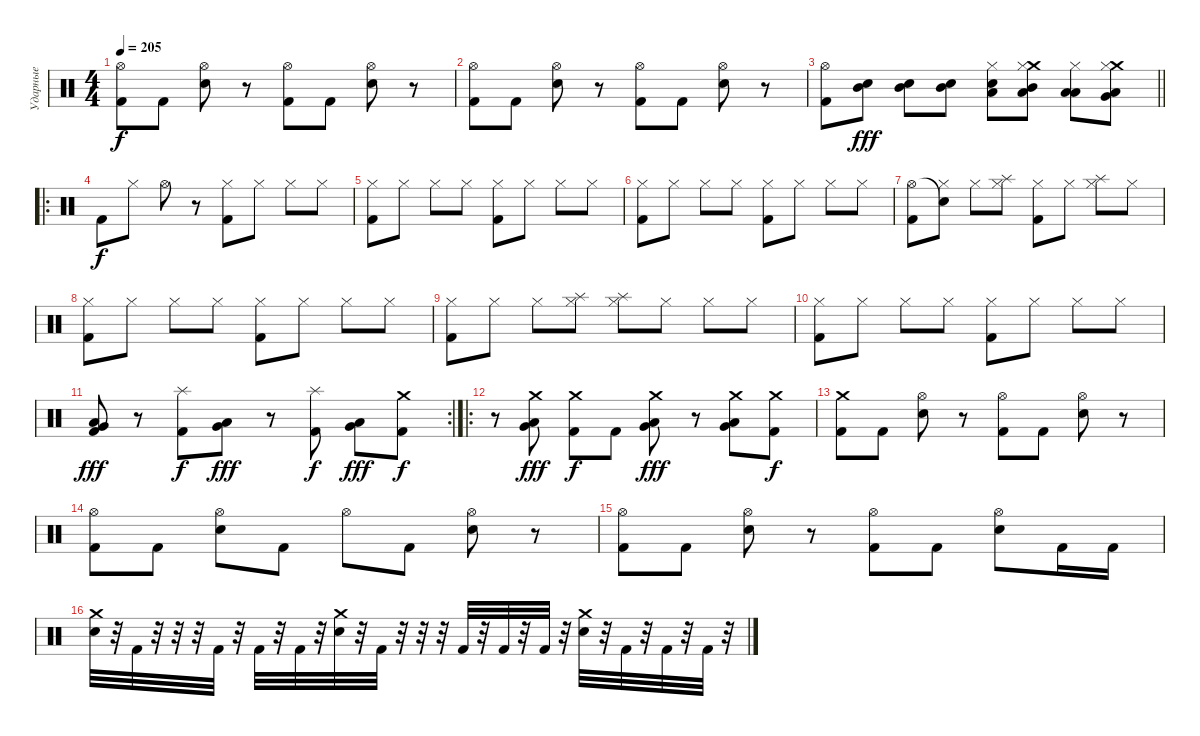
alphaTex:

\track ("Ударные" "Ударные") {instrument percussion}
\staff {score}
\articulation defaults
\ts (4 4)
\tempo 205
\clef neutral
\ks c
("Hi-Hat (open)" "Kick (hit) 2").8{dy f} "Kick (hit) 2".8 ("Hi-Hat (open)" "Electric Snare (hit)").8 r.8 ("Hi-Hat (open)" "Kick (hit) 2").8 "Kick (hit) 2".8 ("Hi-Hat (open)" "Electric Snare (hit)").8 r.8 |
("Hi-Hat (open)" "Kick (hit) 2").8 "Kick (hit) 2".8 ("Hi-Hat (open)" "Electric Snare (hit)").8 r.8 ("Hi-Hat (open)" "Kick (hit) 2").8 "Kick (hit) 2".8 ("Hi-Hat (open)" "Electric Snare (hit)").8 r.8 |
\barLineRight lightlight
("Hi-Hat (open)" "Kick (hit) 2").8 ("Mid Tom (hit)" "Electric Snare (hit)").8{dy fff} ("Mid Tom (hit)" "Electric Snare (hit)").8 ("Mid Tom (hit)" "Electric Snare (hit)").8 ("Low Tom (hit)" "Electric Snare (hit)" "Hi-Hat (closed)").8 ("Crash medium (hit)" "Low Tom (hit)" "Mid Tom (hit)" "Hi-Hat (closed)").8 ("Low Floor Tom (hit)" "Low Tom (hit)" "Hi-Hat (closed)").8 ("Crash medium (hit)" "Low Floor Tom (hit)" "Very Low Tom (hit)" "Hi-Hat (closed)").8 |
\ro "Kick (hit) 2".8{dy f} "Hi-Hat (closed)".8 "Hi-Hat (open)".8
r.8 ("Hi-Hat (closed)" "Kick (hit) 2").8 "Hi-Hat (closed)".8 "Hi-Hat (closed)".8 "Hi-Hat (closed)".8 |
("Hi-Hat (closed)" "Kick (hit) 2").8 "Hi-Hat (closed)".8 "Hi-Hat (closed)".8 "Hi-Hat (closed)".8 ("Hi-Hat (closed)" "Kick (hit) 2").8 "Hi-Hat (closed)".8 "Hi-Hat (closed)".8 "Hi-Hat (closed)".8 |
("Hi-Hat (closed)" "Kick (hit) 2").8 "Hi-Hat (closed)".8 "Hi-Hat (closed)".8 "Hi-Hat (closed)".8 ("Hi-Hat (closed)" "Kick (hit) 2").8 "Hi-Hat (closed)".8 "Hi-Hat (closed)".8 "Hi-Hat (closed)".8 |
("Hi-Hat (open)" "Kick (hit) 2").8 ("Snare (hit)"{t} "Hi-Hat (closed)").8 "Hi-Hat (closed)".8 ("Splash (hit)" "Hi-Hat (closed)").8 ("Hi-Hat (closed)" "Kick (hit) 2").8 "Hi-Hat (closed)".8 ("Splash (hit)" "Hi-Hat (closed)").8 "Hi-Hat (closed)".8 |
("Hi-Hat (closed)" "Kick (hit) 2").8 "Hi-Hat (closed)".8 "Hi-Hat (closed)".8 "Hi-Hat (closed)".8 ("Hi-Hat (closed)" "Kick (hit) 2").8 "Hi-Hat (closed)".8 "Hi-Hat (closed)".8 "Hi-Hat (closed)".8 |
("Hi-Hat (closed)" "Kick (hit) 2").8 "Hi-Hat (closed)".8 "Hi-Hat (closed)".8 ("Hi-Hat (closed)" "Splash (hit)").8 ("Hi-Hat (closed)" "Splash (hit)").8 "Hi-Hat (closed)".8 "Hi-Hat (closed)".8 "Hi-Hat (closed)".8 |
("Hi-Hat (closed)" "Kick (hit) 2").8 "Hi-Hat (closed)".8 "Hi-Hat (closed)".8 "Hi-Hat (closed)".8 ("Hi-Hat (closed)" "Kick (hit) 2").8 "Hi-Hat (closed)".8 "Hi-Hat (closed)".8 "Hi-Hat (closed)".8 |
\rc 2
("Low Floor Tom (hit)" "Very Low Tom (hit)" "Kick (hit) 2").8{dy fff} r.8 ("Splash (hit)" "Kick (hit) 2").8{dy f} ("Low Floor Tom (hit)" "Very Low Tom (hit)").8{dy fff} r.8 ("Splash (hit)" "Kick (hit) 2").8{dy f} ("Low Floor Tom (hit)" "Very Low Tom (hit)").8{dy fff} ("Crash medium (hit)" "Kick (hit) 2").8{dy f} |
\ro
r.8 ("Low Floor Tom (hit)" "Very Low Tom (hit)" "Crash medium (hit)").8{dy fff} ("Crash medium (hit)" "Kick (hit) 2").8{dy f} "Kick (hit) 2".8 ("Crash medium (hit)" "Low Floor Tom (hit)" "Very Low Tom (hit)").8{dy fff} r.8 ("Crash medium (hit)" "Low Floor Tom (hit)" "Very Low Tom (hit)").8 ("Crash medium (hit)" "Kick (hit) 2").8{dy f} |
("Crash medium (hit)" "Kick (hit) 2").8 "Kick (hit) 2".8 ("Hi-Hat (open)" "Electric Snare (hit)").8 r.8 ("Hi-Hat (open)" "Kick (hit) 2").8 "Kick (hit) 2".8 ("Hi-Hat (open)" "Electric Snare (hit)").8 r.8 |
("Hi-Hat (open)" "Kick (hit) 2").8 "Kick (hit) 2".8 ("Hi-Hat (open)" "Electric Snare (hit)").8 "Kick (hit) 2".8 "Hi-Hat (open)".8 "Kick (hit) 2".8 ("Hi-Hat (open)" "Electric Snare (hit)").8 r.8 |
("Hi-Hat (open)" "Kick (hit) 2").8 "Kick (hit) 2".8 ("Hi-Hat (open)" "Electric Snare (hit)").8 r.8 ("Hi-Hat (open)" "Kick (hit) 2").8 "Kick (hit) 2".8 ("Hi-Hat (open)" "Electric Snare (hit)").8 "Kick (hit) 2".16 "Kick (hit) 2".16 |
("Crash medium (hit)" "Electric Snare (hit)").32 r.32 "Kick (hit) 2".32 r.32 r.32 r.32 "Kick (hit) 2".32 r.32 "Kick (hit) 2".32 r.32 "Kick (hit) 2".32 r.32 ("Crash medium (hit)" "Electric Snare (hit)").32 r.32 "Kick (hit) 2".32 r.32 r.32 r.32 "Kick (hit) 2".32 r.32 "Kick (hit) 2".32 r.32 "Kick (hit) 2".32 r.32 ("Crash medium (hit)" "Electric Snare (hit)").32 r.32 "Kick (hit) 2".32 r.32 "Kick (hit) 2".32 r.32 "Kick (hit) 2".32 r.32
